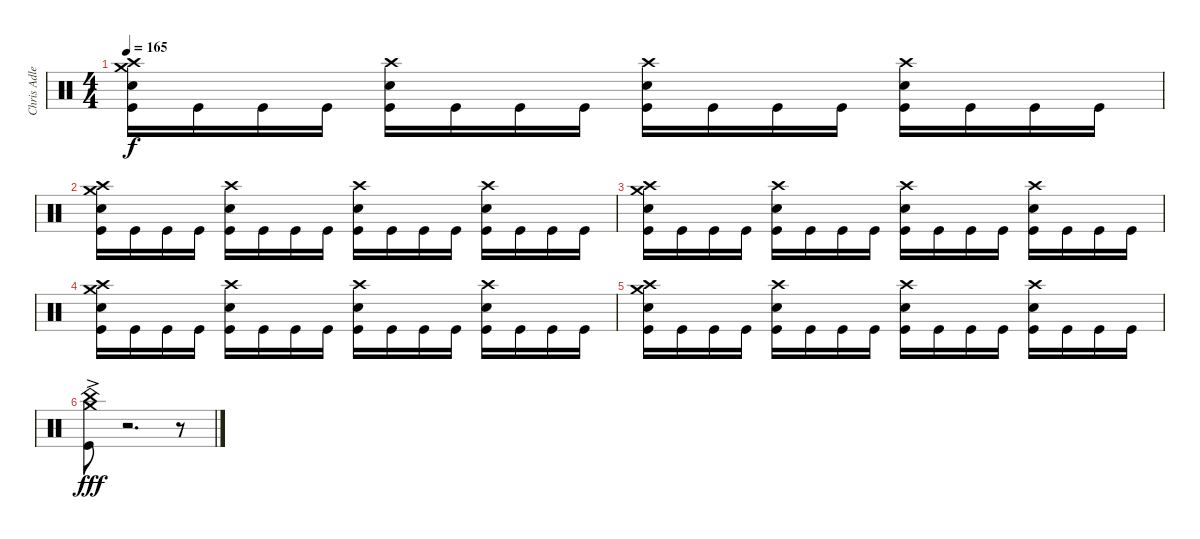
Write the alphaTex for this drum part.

\track ("Chris Adler" "Chris Adle") {instrument percussion}
\staff {score}
\articulation defaults
\ts (4 4)
\tempo 165
\clef neutral
\ks c
("Crash high (hit)" "Electric Snare (hit)" "Crash medium (hit)" "Kick (hit)").16{dy f} "Kick (hit)".16 "Kick (hit)".16 "Kick (hit)".16 ("Crash high (hit)" "Electric Snare (hit)" "Kick (hit)").16 "Kick (hit)".16 "Kick (hit)".16 "Kick (hit)".16 ("Crash high (hit)" "Electric Snare (hit)" "Kick (hit)").16 "Kick (hit)".16 "Kick (hit)".16 "Kick (hit)".16 ("Crash high (hit)" "Electric Snare (hit)" "Kick (hit)").16 "Kick (hit)".16 "Kick (hit)".16 "Kick (hit)".16 |
("Crash high (hit)" "Electric Snare (hit)" "Crash medium (hit)" "Kick (hit)").16 "Kick (hit)".16 "Kick (hit)".16 "Kick (hit)".16 ("Crash high (hit)" "Electric Snare (hit)" "Kick (hit)").16 "Kick (hit)".16 "Kick (hit)".16 "Kick (hit)".16 ("Crash high (hit)" "Electric Snare (hit)" "Kick (hit)").16 "Kick (hit)".16 "Kick (hit)".16 "Kick (hit)".16 ("Crash high (hit)" "Electric Snare (hit)" "Kick (hit)").16 "Kick (hit)".16 "Kick (hit)".16 "Kick (hit)".16 |
("Crash high (hit)" "Electric Snare (hit)" "Crash medium (hit)" "Kick (hit)").16 "Kick (hit)".16 "Kick (hit)".16 "Kick (hit)".16 ("Crash high (hit)" "Electric Snare (hit)" "Kick (hit)").16 "Kick (hit)".16 "Kick (hit)".16 "Kick (hit)".16 ("Crash high (hit)" "Electric Snare (hit)" "Kick (hit)").16 "Kick (hit)".16 "Kick (hit)".16 "Kick (hit)".16 ("Crash high (hit)" "Electric Snare (hit)" "Kick (hit)").16 "Kick (hit)".16 "Kick (hit)".16 "Kick (hit)".16 |
("Crash high (hit)" "Electric Snare (hit)" "Crash medium (hit)" "Kick (hit)").16 "Kick (hit)".16 "Kick (hit)".16 "Kick (hit)".16 ("Crash high (hit)" "Electric Snare (hit)" "Kick (hit)").16 "Kick (hit)".16 "Kick (hit)".16 "Kick (hit)".16 ("Crash high (hit)" "Electric Snare (hit)" "Kick (hit)").16 "Kick (hit)".16 "Kick (hit)".16 "Kick (hit)".16 ("Crash high (hit)" "Electric Snare (hit)" "Kick (hit)").16 "Kick (hit)".16 "Kick (hit)".16 "Kick (hit)".16 |
("Crash high (hit)" "Electric Snare (hit)" "Crash medium (hit)" "Kick (hit)").16 "Kick (hit)".16 "Kick (hit)".16 "Kick (hit)".16 ("Crash high (hit)" "Electric Snare (hit)" "Kick (hit)").16 "Kick (hit)".16 "Kick (hit)".16 "Kick (hit)".16 ("Crash high (hit)" "Electric Snare (hit)" "Kick (hit)").16 "Kick (hit)".16 "Kick (hit)".16 "Kick (hit)".16 ("Crash high (hit)" "Electric Snare (hit)" "Kick (hit)").16 "Kick (hit)".16 "Kick (hit)".16 "Kick (hit)".16 |
("China (hit)"{ac} "Crash medium (hit)" "Kick (hit)").8{dy fff} r.2{d} r.8
